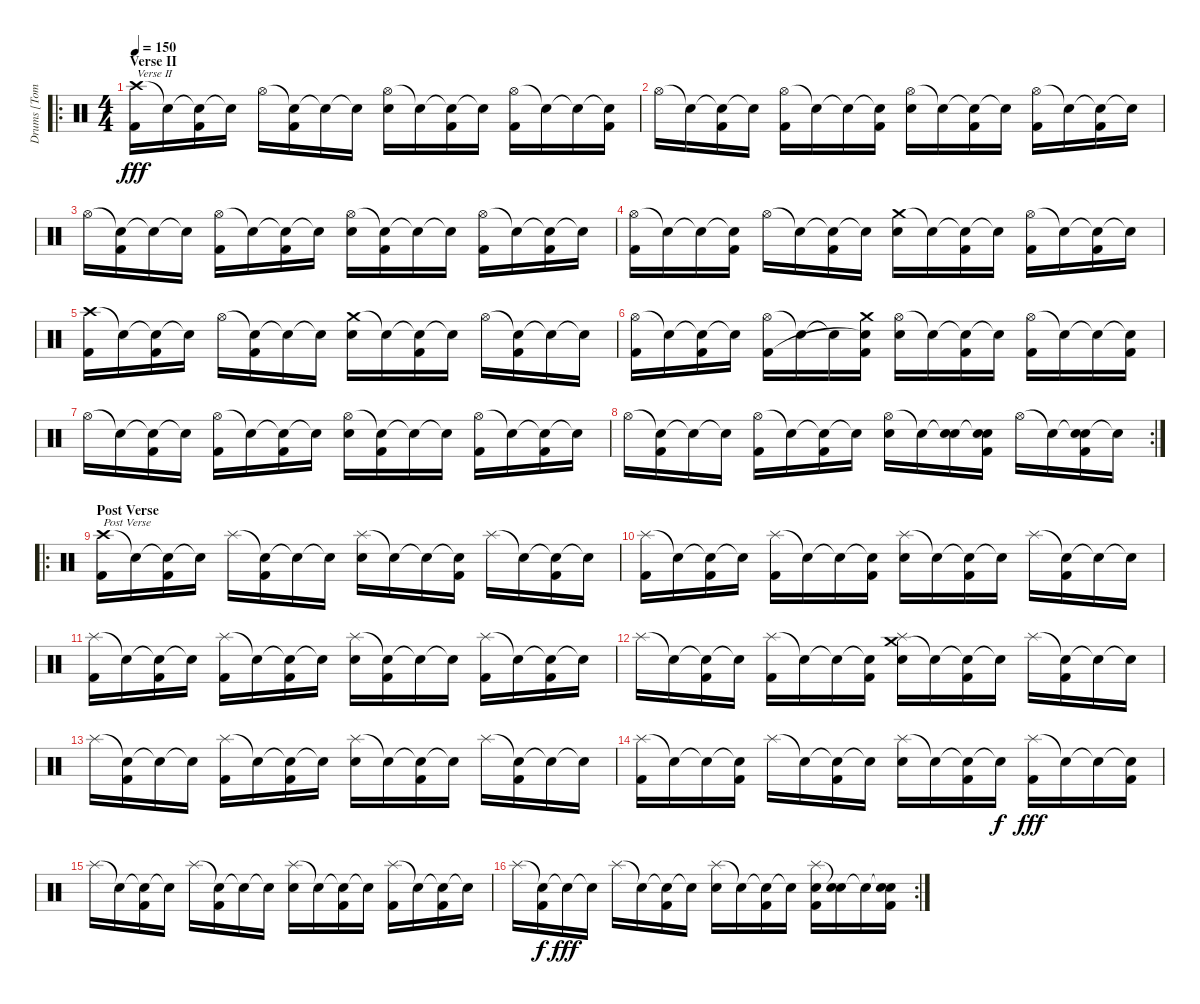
\track ("Drums [Tomas Haake]" "Drums [Tom") {instrument percussion}
\staff {score}
\articulation defaults
\ro
\ts (4 4)
\section ("" "Verse II")
\tempo 150
\clef neutral
\ks c
("Crash high (hit)" "Kick (hit) 2").16{txt "Verse II" dy fff} "Snare (hit)"{t}.16 ("Snare (hit)"{t} "Kick (hit) 2").16 "Snare (hit)"{t}.16 "Hi-Hat (open)".16 ("Snare (hit)"{t} "Kick (hit) 2").16 "Snare (hit)"{t}.16 "Snare (hit)"{t}.16 ("Hi-Hat (open)" "Electric Snare (hit)").16 "Snare (hit)"{t}.16 ("Snare (hit)"{t} "Kick (hit) 2").16 "Snare (hit)"{t}.16 ("Hi-Hat (open)" "Kick (hit) 2").16 "Snare (hit)"{t}.16 "Snare (hit)"{t}.16 ("Snare (hit)"{t} "Kick (hit) 2").16 |
"Hi-Hat (open)".16 "Snare (hit)"{t}.16 ("Snare (hit)"{t} "Kick (hit) 2").16 "Snare (hit)"{t}.16 ("Hi-Hat (open)" "Kick (hit) 2").16 "Snare (hit)"{t}.16 "Snare (hit)"{t}.16 ("Snare (hit)"{t} "Kick (hit) 2").16 ("Hi-Hat (open)" "Electric Snare (hit)").16 "Snare (hit)"{t}.16 ("Snare (hit)"{t} "Kick (hit) 2").16 "Snare (hit)"{t}.16 ("Hi-Hat (open)" "Kick (hit) 2").16 "Snare (hit)"{t}.16 ("Snare (hit)"{t} "Kick (hit) 2").16 "Snare (hit)"{t}.16 |
"Hi-Hat (open)".16 ("Snare (hit)"{t} "Kick (hit) 2").16 "Snare (hit)"{t}.16 "Snare (hit)"{t}.16 ("Hi-Hat (open)" "Kick (hit) 2").16 "Snare (hit)"{t}.16 ("Snare (hit)"{t} "Kick (hit) 2").16 "Snare (hit)"{t}.16 ("Hi-Hat (open)" "Electric Snare (hit)").16 ("Snare (hit)"{t} "Kick (hit) 2").16 "Snare (hit)"{t}.16 "Snare (hit)"{t}.16 ("Hi-Hat (open)" "Kick (hit) 2").16 "Snare (hit)"{t}.16 ("Snare (hit)"{t} "Kick (hit) 2").16 "Snare (hit)"{t}.16 |
("Hi-Hat (open)" "Kick (hit) 2").16 "Snare (hit)"{t}.16 "Snare (hit)"{t}.16 ("Snare (hit)"{t} "Kick (hit) 2").16 "Hi-Hat (open)".16 "Snare (hit)"{t}.16 ("Snare (hit)"{t} "Kick (hit) 2").16 "Snare (hit)"{t}.16 ("Crash medium (hit)" "Electric Snare (hit)").16 "Snare (hit)"{t}.16 ("Snare (hit)"{t} "Kick (hit) 2").16 "Snare (hit)"{t}.16 ("Hi-Hat (open)" "Kick (hit) 2").16 "Snare (hit)"{t}.16 ("Snare (hit)"{t} "Kick (hit) 2").16 "Snare (hit)"{t}.16 |
("Crash high (hit)" "Kick (hit) 2").16 "Snare (hit)"{t}.16 ("Snare (hit)"{t} "Kick (hit) 2").16 "Snare (hit)"{t}.16 "Hi-Hat (open)".16 ("Snare (hit)"{t} "Kick (hit) 2").16 "Snare (hit)"{t}.16 "Snare (hit)"{t}.16 ("Crash medium (hit)" "Electric Snare (hit)").16 "Snare (hit)"{t}.16 ("Snare (hit)"{t} "Kick (hit) 2").16 "Snare (hit)"{t}.16 "Hi-Hat (open)".16 ("Snare (hit)"{t} "Kick (hit) 2").16 "Snare (hit)"{t}.16 "Snare (hit)"{t}.16 |
("Hi-Hat (open)" "Kick (hit) 2").16 "Snare (hit)"{t}.16 ("Snare (hit)"{t} "Kick (hit) 2").16 "Snare (hit)"{t}.16 ("Hi-Hat (open)" "Kick (hit) 2").16 "Snare (hit)"{t}.16 "Snare (hit)"{t}.16 ("Crash medium (hit)" "Snare (hit)"{t} "Kick (hit) 2").16 ("Hi-Hat (open)" "Electric Snare (hit)").16 "Snare (hit)"{t}.16 ("Snare (hit)"{t} "Kick (hit) 2").16 "Snare (hit)"{t}.16 ("Hi-Hat (open)" "Kick (hit) 2").16 "Snare (hit)"{t}.16 "Snare (hit)"{t}.16 ("Snare (hit)"{t} "Kick (hit) 2").16 |
"Hi-Hat (open)".16 "Snare (hit)"{t}.16 ("Snare (hit)"{t} "Kick (hit) 2").16 "Snare (hit)"{t}.16 ("Hi-Hat (open)" "Kick (hit) 2").16 "Snare (hit)"{t}.16 ("Snare (hit)"{t} "Kick (hit) 2").16 "Snare (hit)"{t}.16 ("Hi-Hat (open)" "Electric Snare (hit)").16 ("Snare (hit)"{t} "Kick (hit) 2").16 "Snare (hit)"{t}.16 "Snare (hit)"{t}.16 ("Hi-Hat (open)" "Kick (hit) 2").16 "Snare (hit)"{t}.16 ("Snare (hit)"{t} "Kick (hit) 2").16 "Snare (hit)"{t}.16 |
\rc 2 "Hi-Hat (open)".16
("Snare (hit)"{t} "Kick (hit) 2").16 "Snare (hit)"{t}.16 "Snare (hit)"{t}.16 ("Hi-Hat (open)" "Kick (hit) 2").16 "Snare (hit)"{t}.16 ("Snare (hit)"{t} "Kick (hit) 2").16 "Snare (hit)"{t}.16 ("Hi-Hat (open)" "Electric Snare (hit)").16 "Snare (hit)"{t}.16 ("Snare (hit)"{t} "Electric Snare (hit)").16 ("Snare (hit)"{t} "Electric Snare (hit)" "Kick (hit) 2").16 "Hi-Hat (open)".16 "Snare (hit)"{t}.16 ("Snare (hit)"{t} "Electric Snare (hit)" "Kick (hit) 2").16 "Snare (hit)"{t}.16 |
\ro
\section ("" "Post Verse")
("Crash high (hit)" "Kick (hit) 2").16{txt "Post Verse"} "Snare (hit)"{t}.16 ("Snare (hit)"{t} "Kick (hit) 2").16 "Snare (hit)"{t}.16 "Splash (hit)".16 ("Snare (hit)"{t} "Kick (hit) 2").16 "Snare (hit)"{t}.16 "Snare (hit)"{t}.16 ("Splash (hit)" "Electric Snare (hit)").16 "Snare (hit)"{t}.16 "Snare (hit)"{t}.16 ("Snare (hit)"{t} "Kick (hit) 2").16 "Splash (hit)".16 "Snare (hit)"{t}.16 ("Snare (hit)"{t} "Kick (hit) 2").16 "Snare (hit)"{t}.16 |
("Splash (hit)" "Kick (hit) 2").16 "Snare (hit)"{t}.16 ("Snare (hit)"{t} "Kick (hit) 2").16 "Snare (hit)"{t}.16 ("Splash (hit)" "Kick (hit) 2").16 "Snare (hit)"{t}.16 "Snare (hit)"{t}.16 ("Snare (hit)"{t} "Kick (hit) 2").16 ("Splash (hit)" "Electric Snare (hit)").16 "Snare (hit)"{t}.16 ("Snare (hit)"{t} "Kick (hit) 2").16 "Snare (hit)"{t}.16 "Splash (hit)".16 ("Snare (hit)"{t} "Kick (hit) 2").16 "Snare (hit)"{t}.16 "Snare (hit)"{t}.16 |
("Splash (hit)" "Kick (hit) 2").16 "Snare (hit)"{t}.16 ("Snare (hit)"{t} "Kick (hit) 2").16 "Snare (hit)"{t}.16 ("Splash (hit)" "Kick (hit) 2").16 "Snare (hit)"{t}.16 ("Snare (hit)"{t} "Kick (hit) 2").16 "Snare (hit)"{t}.16 ("Splash (hit)" "Electric Snare (hit)").16 ("Snare (hit)"{t} "Kick (hit) 2").16 "Snare (hit)"{t}.16 "Snare (hit)"{t}.16 ("Splash (hit)" "Kick (hit) 2").16 "Snare (hit)"{t}.16 ("Snare (hit)"{t} "Kick (hit) 2").16 "Snare (hit)"{t}.16 |
"Splash (hit)".16 "Snare (hit)"{t}.16 ("Snare (hit)"{t} "Kick (hit) 2").16 "Snare (hit)"{t}.16 ("Splash (hit)" "Kick (hit) 2").16 "Snare (hit)"{t}.16 "Snare (hit)"{t}.16 ("Snare (hit)"{t} "Kick (hit) 2").16 ("Crash medium (hit)" "Splash (hit)" "Electric Snare (hit)").16 "Snare (hit)"{t}.16 ("Snare (hit)"{t} "Kick (hit) 2").16 "Snare (hit)"{t}.16 "Splash (hit)".16 ("Snare (hit)"{t} "Kick (hit) 2").16 "Snare (hit)"{t}.16 "Snare (hit)"{t}.16 |
"Splash (hit)".16 ("Snare (hit)"{t} "Kick (hit) 2").16 "Snare (hit)"{t}.16 "Snare (hit)"{t}.16 ("Splash (hit)" "Kick (hit) 2").16 "Snare (hit)"{t}.16 ("Snare (hit)"{t} "Kick (hit) 2").16 "Snare (hit)"{t}.16 ("Splash (hit)" "Electric Snare (hit)").16 "Snare (hit)"{t}.16 ("Snare (hit)"{t} "Kick (hit) 2").16 "Snare (hit)"{t}.16 "Splash (hit)".16 ("Snare (hit)"{t} "Kick (hit) 2").16 "Snare (hit)"{t}.16 "Snare (hit)"{t}.16 |
("Splash (hit)" "Kick (hit) 2").16 "Snare (hit)"{t}.16 "Snare (hit)"{t}.16 ("Snare (hit)"{t} "Kick (hit) 2").16 "Splash (hit)".16 "Snare (hit)"{t}.16 ("Snare (hit)"{t} "Kick (hit) 2").16 "Snare (hit)"{t}.16 ("Splash (hit)" "Electric Snare (hit)").16 "Snare (hit)"{t}.16 ("Snare (hit)"{t} "Kick (hit) 2").16 "Snare (hit)"{t}.16{dy f} ("Splash (hit)" "Kick (hit) 2").16{dy fff} "Snare (hit)"{t}.16 "Snare (hit)"{t}.16 ("Snare (hit)"{t} "Kick (hit) 2").16 |
"Splash (hit)".16 "Snare (hit)"{t}.16 ("Snare (hit)"{t} "Kick (hit) 2").16 "Snare (hit)"{t}.16 "Splash (hit)".16 ("Snare (hit)"{t} "Kick (hit) 2").16 "Snare (hit)"{t}.16 "Snare (hit)"{t}.16 ("Splash (hit)" "Electric Snare (hit)").16 "Snare (hit)"{t}.16 ("Snare (hit)"{t} "Kick (hit) 2").16 "Snare (hit)"{t}.16 ("Splash (hit)" "Kick (hit) 2").16 "Snare (hit)"{t}.16 ("Snare (hit)"{t} "Kick (hit) 2").16 "Snare (hit)"{t}.16 |
\rc 2 "Splash (hit)".16
("Snare (hit)"{t} "Kick (hit) 2").16{dy f} "Snare (hit)"{t}.16{dy fff} "Snare (hit)"{t}.16 "Splash (hit)".16 "Snare (hit)"{t}.16 ("Snare (hit)"{t} "Kick (hit) 2").16 "Snare (hit)"{t}.16 ("Splash (hit)" "Electric Snare (hit)").16 "Snare (hit)"{t}.16 ("Snare (hit)"{t} "Kick (hit) 2").16 "Snare (hit)"{t}.16 ("Splash (hit)" "Electric Snare (hit)" "Kick (hit) 2").16 ("Snare (hit)"{t} "Electric Snare (hit)").16 "Snare (hit)"{t}.16 ("Snare (hit)"{t} "Electric Snare (hit)" "Kick (hit) 2").16
